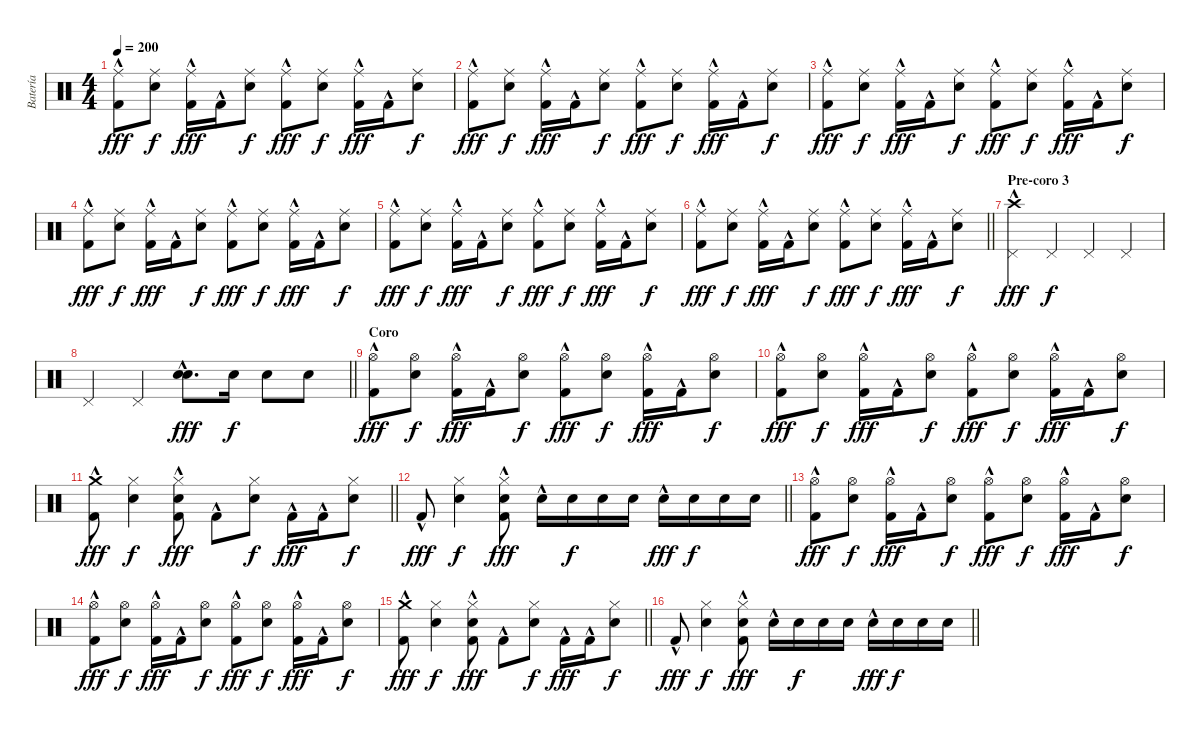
\track ("Batería" "Batería") {instrument percussion bank 6}
\staff {score}
\articulation defaults
\ts (4 4)
\tempo 200
\clef neutral
\ks c
("Ride (middle)" "Kick (hit) 2"{hac}).8{dy fff} ("Snare (hit) 2" "Ride (middle)").8{dy f} ("Ride (middle)" "Kick (hit) 2"{hac}).16{dy fff} "Kick (hit) 2"{hac}.16 ("Snare (hit) 2" "Ride (middle)").8{dy f} ("Ride (middle)" "Kick (hit) 2"{hac}).8{dy fff} ("Snare (hit) 2" "Ride (middle)").8{dy f} ("Ride (middle)" "Kick (hit) 2"{hac}).16{dy fff} "Kick (hit) 2"{hac}.16 ("Snare (hit) 2" "Ride (middle)").8{dy f} |
("Ride (middle)" "Kick (hit) 2"{hac}).8{dy fff} ("Snare (hit) 2" "Ride (middle)").8{dy f} ("Ride (middle)" "Kick (hit) 2"{hac}).16{dy fff} "Kick (hit) 2"{hac}.16 ("Snare (hit) 2" "Ride (middle)").8{dy f} ("Ride (middle)" "Kick (hit) 2"{hac}).8{dy fff} ("Snare (hit) 2" "Ride (middle)").8{dy f} ("Ride (middle)" "Kick (hit) 2"{hac}).16{dy fff} "Kick (hit) 2"{hac}.16 ("Snare (hit) 2" "Ride (middle)").8{dy f} |
("Ride (middle)" "Kick (hit) 2"{hac}).8{dy fff} ("Snare (hit) 2" "Ride (middle)").8{dy f} ("Ride (middle)" "Kick (hit) 2"{hac}).16{dy fff} "Kick (hit) 2"{hac}.16 ("Snare (hit) 2" "Ride (middle)").8{dy f} ("Ride (middle)" "Kick (hit) 2"{hac}).8{dy fff} ("Snare (hit) 2" "Ride (middle)").8{dy f} ("Ride (middle)" "Kick (hit) 2"{hac}).16{dy fff} "Kick (hit) 2"{hac}.16 ("Snare (hit) 2" "Ride (middle)").8{dy f} |
("Ride (middle)" "Kick (hit) 2"{hac}).8{dy fff} ("Snare (hit) 2" "Ride (middle)").8{dy f} ("Ride (middle)" "Kick (hit) 2"{hac}).16{dy fff} "Kick (hit) 2"{hac}.16 ("Snare (hit) 2" "Ride (middle)").8{dy f} ("Ride (middle)" "Kick (hit) 2"{hac}).8{dy fff} ("Snare (hit) 2" "Ride (middle)").8{dy f} ("Ride (middle)" "Kick (hit) 2"{hac}).16{dy fff} "Kick (hit) 2"{hac}.16 ("Snare (hit) 2" "Ride (middle)").8{dy f} |
("Ride (middle)" "Kick (hit) 2"{hac}).8{dy fff} ("Snare (hit) 2" "Ride (middle)").8{dy f} ("Ride (middle)" "Kick (hit) 2"{hac}).16{dy fff} "Kick (hit) 2"{hac}.16 ("Snare (hit) 2" "Ride (middle)").8{dy f} ("Ride (middle)" "Kick (hit) 2"{hac}).8{dy fff} ("Snare (hit) 2" "Ride (middle)").8{dy f} ("Ride (middle)" "Kick (hit) 2"{hac}).16{dy fff} "Kick (hit) 2"{hac}.16 ("Snare (hit) 2" "Ride (middle)").8{dy f} |
\barLineRight lightlight
("Ride (middle)" "Kick (hit) 2"{hac}).8{dy fff} ("Snare (hit) 2" "Ride (middle)").8{dy f} ("Ride (middle)" "Kick (hit) 2"{hac}).16{dy fff} "Kick (hit) 2"{hac}.16 ("Snare (hit) 2" "Ride (middle)").8{dy f} ("Ride (middle)" "Kick (hit) 2"{hac}).8{dy fff} ("Snare (hit) 2" "Ride (middle)").8{dy f} ("Ride (middle)" "Kick (hit) 2"{hac}).16{dy fff} "Kick (hit) 2"{hac}.16 ("Snare (hit) 2" "Ride (middle)").8{dy f} |
\section ("" "Pre-coro 3")
("Crash high (hit)"{hac} "Pedal Hi-Hat (hit)").4{dy fff} "Pedal Hi-Hat (hit)".4{dy f} "Pedal Hi-Hat (hit)".4 "Pedal Hi-Hat (hit)".4 |
\barLineRight lightlight "Pedal Hi-Hat (hit)".4 "Pedal Hi-Hat (hit)".4
("Snare (hit) 2"{hac} "Snare (hit) 2").8{d dy fff} "Snare (hit) 2".16{dy f} "Snare (hit) 2".8 "Snare (hit) 2".8 |
\section ("" "Coro")
("Hi-Hat (open)" "Kick (hit) 2"{hac}).8{dy fff} ("Snare (hit) 2" "Hi-Hat (open)").8{dy f} ("Hi-Hat (open)" "Kick (hit) 2"{hac}).16{dy fff} "Kick (hit) 2"{hac}.16 ("Snare (hit) 2" "Hi-Hat (open)").8{dy f} ("Hi-Hat (open)" "Kick (hit) 2"{hac}).8{dy fff} ("Snare (hit) 2" "Hi-Hat (open)").8{dy f} ("Hi-Hat (open)" "Kick (hit) 2"{hac}).16{dy fff} "Kick (hit) 2"{hac}.16 ("Snare (hit) 2" "Hi-Hat (open)").8{dy f} |
("Hi-Hat (open)" "Kick (hit) 2"{hac}).8{dy fff} ("Snare (hit) 2" "Hi-Hat (open)").8{dy f} ("Hi-Hat (open)" "Kick (hit) 2"{hac}).16{dy fff} "Kick (hit) 2"{hac}.16 ("Snare (hit) 2" "Hi-Hat (open)").8{dy f} ("Hi-Hat (open)" "Kick (hit) 2"{hac}).8{dy fff} ("Snare (hit) 2" "Hi-Hat (open)").8{dy f} ("Hi-Hat (open)" "Kick (hit) 2"{hac}).16{dy fff} "Kick (hit) 2"{hac}.16 ("Snare (hit) 2" "Hi-Hat (open)").8{dy f} |
\barLineRight lightlight
("Crash medium (hit)" "Kick (hit) 2"{hac}).8{dy fff} ("Snare (hit) 2" "Hi-Hat (closed)").4{dy f} ("Snare (hit) 2" "Hi-Hat (closed)" "Kick (hit) 2"{hac}).8{dy fff} "Kick (hit) 2"{hac}.8 ("Snare (hit) 2" "Hi-Hat (closed)").8{dy f} "Kick (hit) 2"{hac}.16{dy fff} "Kick (hit) 2"{hac}.16 ("Snare (hit) 2" "Hi-Hat (closed)").8{dy f} |
\barLineRight lightlight "Kick (hit) 2"{hac}.8{dy fff}
("Snare (hit) 2" "Hi-Hat (closed)").4{dy f} ("Snare (hit) 2" "Hi-Hat (closed)" "Kick (hit) 2"{hac}).8{dy fff} "Snare (hit) 2"{hac}.16 "Snare (hit) 2".16{dy f} "Snare (hit) 2".16 "Snare (hit) 2".16 "Snare (hit) 2"{hac}.16{dy fff} "Snare (hit) 2".16{dy f} "Snare (hit) 2".16 "Snare (hit) 2".16 |
("Hi-Hat (open)" "Kick (hit) 2"{hac}).8{dy fff} ("Snare (hit) 2" "Hi-Hat (open)").8{dy f} ("Hi-Hat (open)" "Kick (hit) 2"{hac}).16{dy fff} "Kick (hit) 2"{hac}.16 ("Snare (hit) 2" "Hi-Hat (open)").8{dy f} ("Hi-Hat (open)" "Kick (hit) 2"{hac}).8{dy fff} ("Snare (hit) 2" "Hi-Hat (open)").8{dy f} ("Hi-Hat (open)" "Kick (hit) 2"{hac}).16{dy fff} "Kick (hit) 2"{hac}.16 ("Snare (hit) 2" "Hi-Hat (open)").8{dy f} |
("Hi-Hat (open)" "Kick (hit) 2"{hac}).8{dy fff} ("Snare (hit) 2" "Hi-Hat (open)").8{dy f} ("Hi-Hat (open)" "Kick (hit) 2"{hac}).16{dy fff} "Kick (hit) 2"{hac}.16 ("Snare (hit) 2" "Hi-Hat (open)").8{dy f} ("Hi-Hat (open)" "Kick (hit) 2"{hac}).8{dy fff} ("Snare (hit) 2" "Hi-Hat (open)").8{dy f} ("Hi-Hat (open)" "Kick (hit) 2"{hac}).16{dy fff} "Kick (hit) 2"{hac}.16 ("Snare (hit) 2" "Hi-Hat (open)").8{dy f} |
\barLineRight lightlight
("Crash medium (hit)" "Kick (hit) 2"{hac}).8{dy fff} ("Snare (hit) 2" "Hi-Hat (closed)").4{dy f} ("Snare (hit) 2" "Hi-Hat (closed)" "Kick (hit) 2"{hac}).8{dy fff} "Kick (hit) 2"{hac}.8 ("Snare (hit) 2" "Hi-Hat (closed)").8{dy f} "Kick (hit) 2"{hac}.16{dy fff} "Kick (hit) 2"{hac}.16 ("Snare (hit) 2" "Hi-Hat (closed)").8{dy f} |
\barLineRight lightlight "Kick (hit) 2"{hac}.8{dy fff}
("Snare (hit) 2" "Hi-Hat (closed)").4{dy f} ("Snare (hit) 2" "Hi-Hat (closed)" "Kick (hit) 2"{hac}).8{dy fff} "Snare (hit) 2"{hac}.16 "Snare (hit) 2".16{dy f} "Snare (hit) 2".16 "Snare (hit) 2".16 "Snare (hit) 2"{hac}.16{dy fff} "Snare (hit) 2".16{dy f} "Snare (hit) 2".16 "Snare (hit) 2".16
